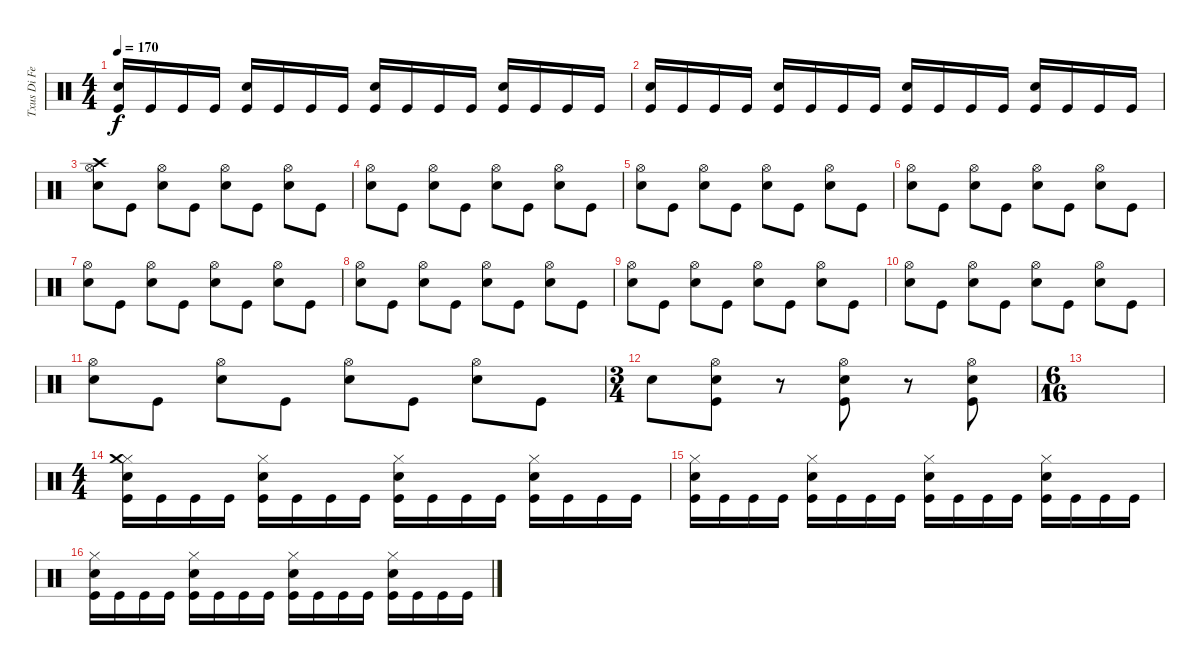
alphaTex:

\track ("Txus Di Fellatio" "Txus Di Fe") {instrument percussion}
\staff {score}
\articulation defaults
\ts (4 4)
\tempo 170
\clef neutral
\ks c
("Snare (hit) 2" "Kick (hit)").16{dy f} "Kick (hit)".16 "Kick (hit)".16 "Kick (hit)".16 ("Snare (hit) 2" "Kick (hit)").16 "Kick (hit)".16 "Kick (hit)".16 "Kick (hit)".16 ("Snare (hit) 2" "Kick (hit)").16 "Kick (hit)".16 "Kick (hit)".16 "Kick (hit)".16 ("Snare (hit) 2" "Kick (hit)").16 "Kick (hit)".16 "Kick (hit)".16 "Kick (hit)".16 |
("Snare (hit) 2" "Kick (hit)").16 "Kick (hit)".16 "Kick (hit)".16 "Kick (hit)".16 ("Snare (hit) 2" "Kick (hit)").16 "Kick (hit)".16 "Kick (hit)".16 "Kick (hit)".16 ("Snare (hit) 2" "Kick (hit)").16 "Kick (hit)".16 "Kick (hit)".16 "Kick (hit)".16 ("Snare (hit) 2" "Kick (hit)").16 "Kick (hit)".16 "Kick (hit)".16 "Kick (hit)".16 |
("Crash high (hit)" "Hi-Hat (open)" "Snare (hit) 2").8 "Kick (hit)".8 ("Hi-Hat (open)" "Snare (hit) 2").8 "Kick (hit)".8 ("Hi-Hat (open)" "Snare (hit) 2").8 "Kick (hit)".8 ("Hi-Hat (open)" "Snare (hit) 2").8 "Kick (hit)".8 |
("Hi-Hat (open)" "Snare (hit) 2").8 "Kick (hit)".8 ("Hi-Hat (open)" "Snare (hit) 2").8 "Kick (hit)".8 ("Hi-Hat (open)" "Snare (hit) 2").8 "Kick (hit)".8 ("Hi-Hat (open)" "Snare (hit) 2").8 "Kick (hit)".8 |
("Hi-Hat (open)" "Snare (hit) 2").8 "Kick (hit)".8 ("Hi-Hat (open)" "Snare (hit) 2").8 "Kick (hit)".8 ("Hi-Hat (open)" "Snare (hit) 2").8 "Kick (hit)".8 ("Hi-Hat (open)" "Snare (hit) 2").8 "Kick (hit)".8 |
("Hi-Hat (open)" "Snare (hit) 2").8 "Kick (hit)".8 ("Hi-Hat (open)" "Snare (hit) 2").8 "Kick (hit)".8 ("Hi-Hat (open)" "Snare (hit) 2").8 "Kick (hit)".8 ("Hi-Hat (open)" "Snare (hit) 2").8 "Kick (hit)".8 |
("Hi-Hat (open)" "Snare (hit) 2").8 "Kick (hit)".8 ("Hi-Hat (open)" "Snare (hit) 2").8 "Kick (hit)".8 ("Hi-Hat (open)" "Snare (hit) 2").8 "Kick (hit)".8 ("Hi-Hat (open)" "Snare (hit) 2").8 "Kick (hit)".8 |
("Hi-Hat (open)" "Snare (hit) 2").8 "Kick (hit)".8 ("Hi-Hat (open)" "Snare (hit) 2").8 "Kick (hit)".8 ("Hi-Hat (open)" "Snare (hit) 2").8 "Kick (hit)".8 ("Hi-Hat (open)" "Snare (hit) 2").8 "Kick (hit)".8 |
("Hi-Hat (open)" "Snare (hit) 2").8 "Kick (hit)".8 ("Hi-Hat (open)" "Snare (hit) 2").8 "Kick (hit)".8 ("Hi-Hat (open)" "Snare (hit) 2").8 "Kick (hit)".8 ("Hi-Hat (open)" "Snare (hit) 2").8 "Kick (hit)".8 |
("Hi-Hat (open)" "Snare (hit) 2").8 "Kick (hit)".8 ("Hi-Hat (open)" "Snare (hit) 2").8 "Kick (hit)".8 ("Hi-Hat (open)" "Snare (hit) 2").8 "Kick (hit)".8 ("Hi-Hat (open)" "Snare (hit) 2").8 "Kick (hit)".8 |
("Hi-Hat (open)" "Snare (hit) 2").8 "Kick (hit)".8 ("Hi-Hat (open)" "Snare (hit) 2").8 "Kick (hit)".8 ("Hi-Hat (open)" "Snare (hit) 2").8 "Kick (hit)".8 ("Hi-Hat (open)" "Snare (hit) 2").8 "Kick (hit)".8 |
\ts (3 4)
"Snare (hit) 2".8 ("Hi-Hat (open)" "Kick (hit)" "Snare (hit) 2").8 r.8 ("Hi-Hat (open)" "Kick (hit)" "Snare (hit) 2").8 r.8 ("Hi-Hat (open)" "Kick (hit)" "Snare (hit) 2").8 |
\ts (6 16)
|
\ts (4 4)
("Hi-Hat (closed)" "Snare (hit) 2" "Crash medium (hit)" "Kick (hit)").16 "Kick (hit)".16 "Kick (hit)".16 "Kick (hit)".16 ("Hi-Hat (closed)" "Snare (hit) 2" "Kick (hit)").16 "Kick (hit)".16 "Kick (hit)".16 "Kick (hit)".16 ("Hi-Hat (closed)" "Snare (hit) 2" "Kick (hit)").16 "Kick (hit)".16 "Kick (hit)".16 "Kick (hit)".16 ("Hi-Hat (closed)" "Snare (hit) 2" "Kick (hit)").16 "Kick (hit)".16 "Kick (hit)".16 "Kick (hit)".16 |
("Hi-Hat (closed)" "Snare (hit) 2" "Kick (hit)").16 "Kick (hit)".16 "Kick (hit)".16 "Kick (hit)".16 ("Hi-Hat (closed)" "Snare (hit) 2" "Kick (hit)").16 "Kick (hit)".16 "Kick (hit)".16 "Kick (hit)".16 ("Hi-Hat (closed)" "Snare (hit) 2" "Kick (hit)").16 "Kick (hit)".16 "Kick (hit)".16 "Kick (hit)".16 ("Hi-Hat (closed)" "Snare (hit) 2" "Kick (hit)").16 "Kick (hit)".16 "Kick (hit)".16 "Kick (hit)".16 |
("Hi-Hat (closed)" "Snare (hit) 2" "Kick (hit)").16 "Kick (hit)".16 "Kick (hit)".16 "Kick (hit)".16 ("Hi-Hat (closed)" "Snare (hit) 2" "Kick (hit)").16 "Kick (hit)".16 "Kick (hit)".16 "Kick (hit)".16 ("Hi-Hat (closed)" "Snare (hit) 2" "Kick (hit)").16 "Kick (hit)".16 "Kick (hit)".16 "Kick (hit)".16 ("Hi-Hat (closed)" "Snare (hit) 2" "Kick (hit)").16 "Kick (hit)".16 "Kick (hit)".16 "Kick (hit)".16
